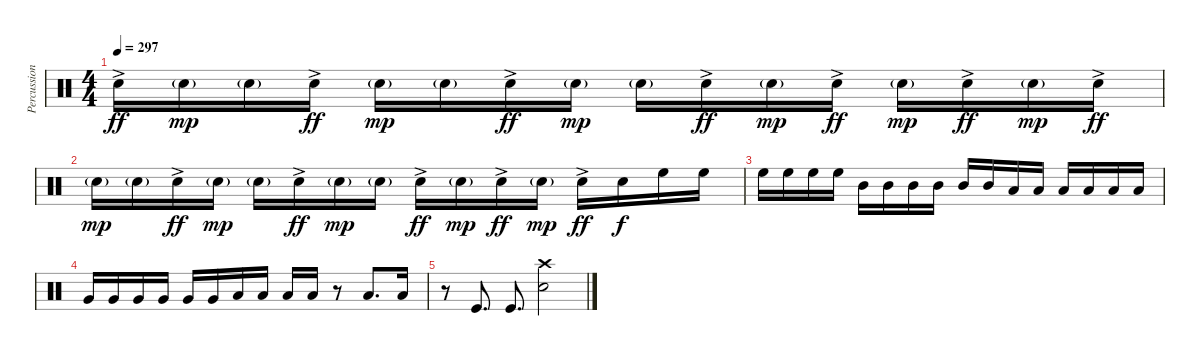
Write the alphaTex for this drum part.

\track ("Percussioni" "Percussion") {instrument percussion}
\staff {score}
\articulation defaults
\ts (4 4)
\tempo 297
\clef neutral
\ks c "Snare (hit) 2"{ac}.16{dy ff} "Snare (hit) 2"{g}.16{dy mp} "Snare (hit) 2"{g}.16 "Snare (hit) 2"{ac}.16{dy ff} "Snare (hit) 2"{g}.16{dy mp} "Snare (hit) 2"{g}.16 "Snare (hit) 2"{ac}.16{dy ff} "Snare (hit) 2"{g}.16{dy mp} "Snare (hit) 2"{g}.16 "Snare (hit) 2"{ac}.16{dy ff} "Snare (hit) 2"{g}.16{dy mp} "Snare (hit) 2"{ac}.16{dy ff} "Snare (hit) 2"{g}.16{dy mp} "Snare (hit) 2"{ac}.16{dy ff} "Snare (hit) 2"{g}.16{dy mp} "Snare (hit) 2"{ac}.16{dy ff}
|
"Snare (hit) 2"{g}.16{dy mp} "Snare (hit) 2"{g}.16 "Snare (hit) 2"{ac}.16{dy ff} "Snare (hit) 2"{g}.16{dy mp} "Snare (hit) 2"{g}.16 "Snare (hit) 2"{ac}.16{dy ff} "Snare (hit) 2"{g}.16{dy mp} "Snare (hit) 2"{g}.16 "Snare (hit) 2"{ac}.16{dy ff} "Snare (hit) 2"{g}.16{dy mp} "Snare (hit) 2"{ac}.16{dy ff} "Snare (hit) 2"{g}.16{dy mp} "Snare (hit) 2"{ac}.16{dy ff} "Snare (hit) 2".16{dy f} "High Floor Tom (hit)".16 "High Floor Tom (hit)".16 |
"High Floor Tom (hit)".16 "High Floor Tom (hit)".16 "High Floor Tom (hit)".16 "High Floor Tom (hit)".16 "Mid Tom (hit)".16 "Mid Tom (hit)".16 "Mid Tom (hit)".16 "Mid Tom (hit)".16 "Mid Tom (hit)".16 "Mid Tom (hit)".16 "Low Tom (hit)".16 "Low Tom (hit)".16 "Low Tom (hit)".16 "Low Tom (hit)".16 "Low Tom (hit)".16 "Low Tom (hit)".16 |
"Very Low Tom (hit)".16 "Very Low Tom (hit)".16 "Very Low Tom (hit)".16 "Very Low Tom (hit)".16 "Very Low Tom (hit)".16 "Very Low Tom (hit)".16 "Low Floor Tom (hit)".16 "Low Floor Tom (hit)".16 "Low Floor Tom (hit)".16 "Low Floor Tom (hit)".16 r.8 "Low Floor Tom (hit)".8{d} "Low Floor Tom (hit)".16 |
r.8 "Kick (hit)".8{d} "Kick (hit)".8{d} ("Snare (hit) 2" "Crash high (hit)").2
